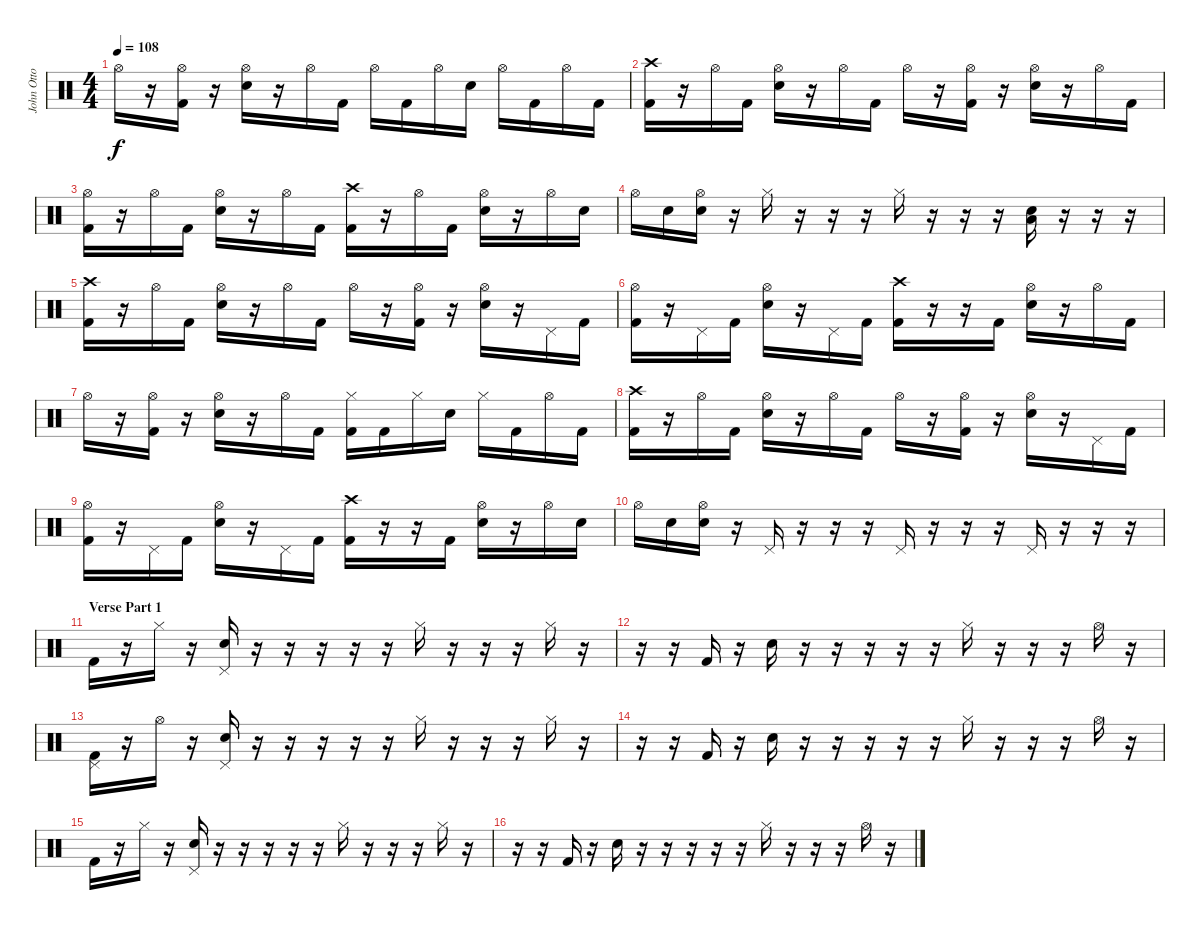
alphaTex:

\track ("John Otto - Drums" "John Otto ") {instrument percussion}
\staff {score}
\articulation defaults
\ts (4 4)
\tempo 108
\clef neutral
\ks c "Hi-Hat (open)".16{dy f}
r.16 ("Hi-Hat (open)" "Kick (hit) 2").16 r.16 ("Hi-Hat (open)" "Snare (hit) 2").16 r.16 "Hi-Hat (open)".16 "Kick (hit) 2".16 "Hi-Hat (open)".16 "Kick (hit) 2".16 "Hi-Hat (open)".16 "Snare (hit) 2".16 "Hi-Hat (open)".16 "Kick (hit) 2".16 "Hi-Hat (open)".16 "Kick (hit) 2".16 |
("Crash high (hit)" "Kick (hit) 2").16 r.16 "Hi-Hat (open)".16 "Kick (hit) 2".16 ("Hi-Hat (open)" "Snare (hit) 2").16 r.16 "Hi-Hat (open)".16 "Kick (hit) 2".16 "Hi-Hat (open)".16 r.16 ("Hi-Hat (open)" "Kick (hit) 2").16 r.16 ("Hi-Hat (open)" "Snare (hit) 2").16 r.16 "Hi-Hat (open)".16 "Kick (hit) 2".16 |
("Hi-Hat (open)" "Kick (hit) 2").16 r.16 "Hi-Hat (open)".16 "Kick (hit) 2".16 ("Hi-Hat (open)" "Snare (hit) 2").16 r.16 "Hi-Hat (open)".16 "Kick (hit) 2".16 ("Crash high (hit)" "Kick (hit) 2").16 r.16 "Hi-Hat (open)".16 "Kick (hit) 2".16 ("Hi-Hat (open)" "Snare (hit) 2").16 r.16 "Hi-Hat (open)".16 "Snare (hit) 2".16 |
"Hi-Hat (open)".16 "Snare (hit) 2".16 ("Hi-Hat (open)" "Snare (hit) 2").16 r.16 "Hi-Hat (closed)".16 r.16 r.16 r.16 "Hi-Hat (closed)".16 r.16 r.16 r.16 ("Low Floor Tom (hit)" "Snare (hit) 2").16 r.16 r.16 r.16 |
("Crash high (hit)" "Kick (hit) 2").16 r.16 "Hi-Hat (open)".16 "Kick (hit) 2".16 ("Hi-Hat (open)" "Snare (hit) 2").16 r.16 "Hi-Hat (open)".16 "Kick (hit) 2".16 "Hi-Hat (open)".16 r.16 ("Hi-Hat (open)" "Kick (hit) 2").16 r.16 ("Hi-Hat (open)" "Snare (hit) 2").16 r.16 "Pedal Hi-Hat (hit)".16 "Kick (hit) 2".16 |
("Hi-Hat (open)" "Kick (hit) 2").16 r.16 "Pedal Hi-Hat (hit)".16 "Kick (hit) 2".16 ("Hi-Hat (open)" "Snare (hit) 2").16 r.16 "Pedal Hi-Hat (hit)".16 "Kick (hit) 2".16 ("Crash high (hit)" "Kick (hit) 2").16 r.16 r.16 "Kick (hit) 2".16 ("Hi-Hat (open)" "Snare (hit) 2").16 r.16 "Hi-Hat (open)".16 "Kick (hit) 2".16 |
"Hi-Hat (open)".16 r.16 ("Hi-Hat (open)" "Kick (hit) 2").16 r.16 ("Hi-Hat (open)" "Snare (hit) 2").16 r.16 "Hi-Hat (open)".16 "Kick (hit) 2".16 ("Hi-Hat (closed)" "Kick (hit) 2").16 "Kick (hit) 2".16 "Hi-Hat (closed)".16 "Snare (hit) 2".16 "Hi-Hat (closed)".16 "Kick (hit) 2".16 "Hi-Hat (open)".16 "Kick (hit) 2".16 |
("Crash high (hit)" "Kick (hit) 2").16 r.16 "Hi-Hat (open)".16 "Kick (hit) 2".16 ("Hi-Hat (open)" "Snare (hit) 2").16 r.16 "Hi-Hat (open)".16 "Kick (hit) 2".16 "Hi-Hat (open)".16 r.16 ("Hi-Hat (open)" "Kick (hit) 2").16 r.16 ("Hi-Hat (open)" "Snare (hit) 2").16 r.16 "Pedal Hi-Hat (hit)".16 "Kick (hit) 2".16 |
("Hi-Hat (open)" "Kick (hit) 2").16 r.16 "Pedal Hi-Hat (hit)".16 "Kick (hit) 2".16 ("Hi-Hat (open)" "Snare (hit) 2").16 r.16 "Pedal Hi-Hat (hit)".16 "Kick (hit) 2".16 ("Crash high (hit)" "Kick (hit) 2").16 r.16 r.16 "Kick (hit) 2".16 ("Hi-Hat (open)" "Snare (hit) 2").16 r.16 "Hi-Hat (open)".16 "Snare (hit) 2".16 |
"Hi-Hat (open)".16 "Snare (hit) 2".16 ("Hi-Hat (open)" "Snare (hit) 2").16 r.16 "Pedal Hi-Hat (hit)".16 r.16 r.16 r.16 "Pedal Hi-Hat (hit)".16 r.16 r.16 r.16 "Pedal Hi-Hat (hit)".16 r.16 r.16 r.16 |
\section ("" "Verse Part 1")
"Kick (hit) 2".16 r.16 "Hi-Hat (closed)".16 r.16 ("Pedal Hi-Hat (hit)" "Snare (hit) 2").16 r.16 r.16 r.16 r.16 r.16 "Hi-Hat (closed)".16 r.16 r.16 r.16 "Hi-Hat (closed)".16 r.16 |
r.16 r.16 "Kick (hit) 2".16 r.16 "Snare (hit) 2".16 r.16 r.16 r.16 r.16 r.16 "Hi-Hat (closed)".16 r.16 r.16 r.16 "Hi-Hat (open)".16 r.16 |
("Pedal Hi-Hat (hit)" "Kick (hit) 2").16 r.16 "Hi-Hat (open)".16 r.16 ("Pedal Hi-Hat (hit)" "Snare (hit) 2").16 r.16 r.16 r.16 r.16 r.16 "Hi-Hat (closed)".16 r.16 r.16 r.16 "Hi-Hat (closed)".16 r.16 |
r.16 r.16 "Kick (hit) 2".16 r.16 "Snare (hit) 2".16 r.16 r.16 r.16 r.16 r.16 "Hi-Hat (closed)".16 r.16 r.16 r.16 "Hi-Hat (open)".16 r.16 |
"Kick (hit) 2".16 r.16 "Hi-Hat (closed)".16 r.16 ("Pedal Hi-Hat (hit)" "Snare (hit) 2").16 r.16 r.16 r.16 r.16 r.16 "Hi-Hat (closed)".16 r.16 r.16 r.16 "Hi-Hat (closed)".16 r.16 |
r.16 r.16 "Kick (hit) 2".16 r.16 "Snare (hit) 2".16 r.16 r.16 r.16 r.16 r.16 "Hi-Hat (closed)".16 r.16 r.16 r.16 "Hi-Hat (open)".16 r.16
